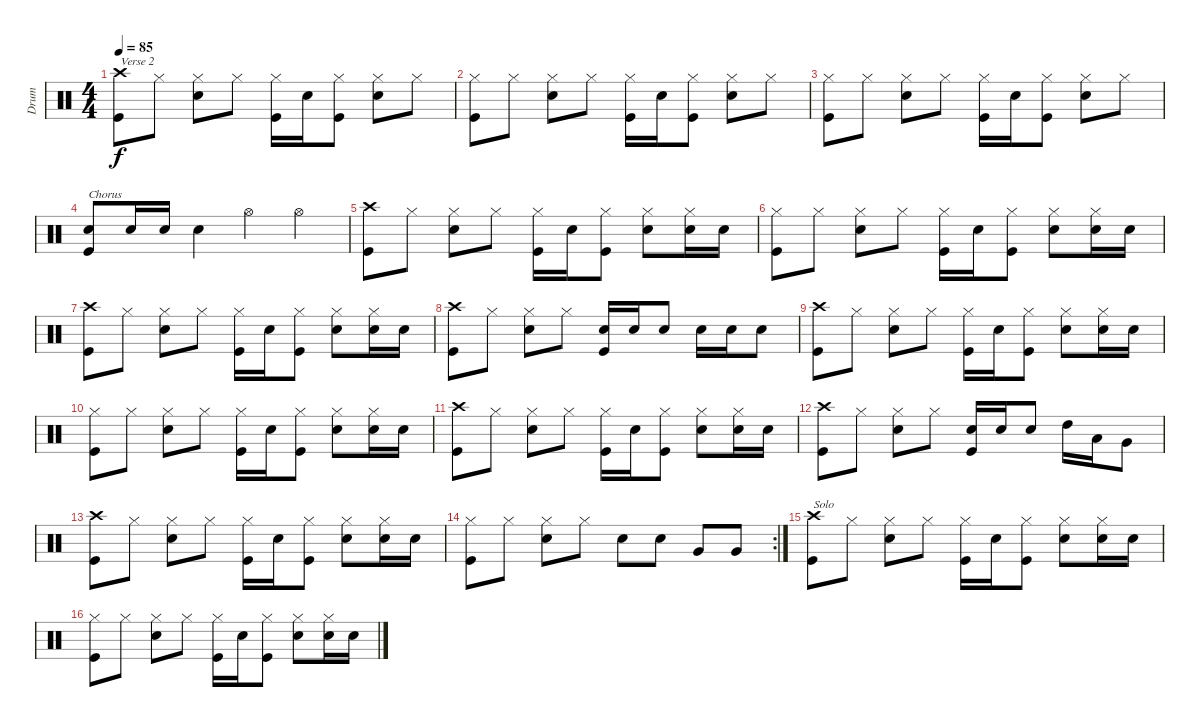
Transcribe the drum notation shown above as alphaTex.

\track ("Drum" "Drum") {instrument percussion}
\staff {score}
\articulation defaults
\ts (4 4)
\tempo 85
\clef neutral
\ks c
("Crash high (hit)" "Kick (hit)").8{txt "Verse 2" dy f} "Hi-Hat (closed)".8 ("Hi-Hat (closed)" "Snare (hit) 2").8 "Hi-Hat (closed)".8 ("Hi-Hat (closed)" "Kick (hit)").16 "Snare (hit) 2".16 ("Hi-Hat (closed)" "Kick (hit)").8 ("Hi-Hat (closed)" "Snare (hit) 2").8 "Hi-Hat (closed)".8 |
("Hi-Hat (closed)" "Kick (hit)").8 "Hi-Hat (closed)".8 ("Hi-Hat (closed)" "Snare (hit) 2").8 "Hi-Hat (closed)".8 ("Hi-Hat (closed)" "Kick (hit)").16 "Snare (hit) 2".16 ("Hi-Hat (closed)" "Kick (hit)").8 ("Hi-Hat (closed)" "Snare (hit) 2").8 "Hi-Hat (closed)".8 |
("Hi-Hat (closed)" "Kick (hit)").8 "Hi-Hat (closed)".8 ("Hi-Hat (closed)" "Snare (hit) 2").8 "Hi-Hat (closed)".8 ("Hi-Hat (closed)" "Kick (hit)").16 "Snare (hit) 2".16 ("Hi-Hat (closed)" "Kick (hit)").8 ("Hi-Hat (closed)" "Snare (hit) 2").8 "Hi-Hat (closed)".8 |
("Snare (hit) 2" "Kick (hit)").8{txt "Chorus"} "Snare (hit) 2".16 "Snare (hit) 2".16 "Snare (hit) 2".4 "Hi-Hat (open)".4 "Hi-Hat (open)".4 |
("Crash high (hit)" "Kick (hit)").8 "Hi-Hat (closed)".8 ("Hi-Hat (closed)" "Snare (hit) 2").8 "Hi-Hat (closed)".8 ("Hi-Hat (closed)" "Kick (hit)").16 "Snare (hit) 2".16 ("Hi-Hat (closed)" "Kick (hit)").8 ("Hi-Hat (closed)" "Snare (hit) 2").8 ("Hi-Hat (closed)" "Snare (hit) 2").16 "Snare (hit) 2".16 |
("Hi-Hat (closed)" "Kick (hit)").8 "Hi-Hat (closed)".8 ("Hi-Hat (closed)" "Snare (hit) 2").8 "Hi-Hat (closed)".8 ("Hi-Hat (closed)" "Kick (hit)").16 "Snare (hit) 2".16 ("Hi-Hat (closed)" "Kick (hit)").8 ("Hi-Hat (closed)" "Snare (hit) 2").8 ("Hi-Hat (closed)" "Snare (hit) 2").16 "Snare (hit) 2".16 |
("Crash high (hit)" "Kick (hit)").8 "Hi-Hat (closed)".8 ("Hi-Hat (closed)" "Snare (hit) 2").8 "Hi-Hat (closed)".8 ("Hi-Hat (closed)" "Kick (hit)").16 "Snare (hit) 2".16 ("Hi-Hat (closed)" "Kick (hit)").8 ("Hi-Hat (closed)" "Snare (hit) 2").8 ("Hi-Hat (closed)" "Snare (hit) 2").16 "Snare (hit) 2".16 |
("Crash high (hit)" "Kick (hit)").8 "Hi-Hat (closed)".8 ("Hi-Hat (closed)" "Snare (hit) 2").8 "Hi-Hat (closed)".8 ("Snare (hit) 2" "Kick (hit)").16 "Snare (hit) 2".16 "Snare (hit) 2".8 "Snare (hit) 2".16 "Snare (hit) 2".16 "Snare (hit) 2".8 |
("Crash high (hit)" "Kick (hit)").8 "Hi-Hat (closed)".8 ("Hi-Hat (closed)" "Snare (hit) 2").8 "Hi-Hat (closed)".8 ("Hi-Hat (closed)" "Kick (hit)").16 "Snare (hit) 2".16 ("Hi-Hat (closed)" "Kick (hit)").8 ("Hi-Hat (closed)" "Snare (hit) 2").8 ("Hi-Hat (closed)" "Snare (hit) 2").16 "Snare (hit) 2".16 |
("Hi-Hat (closed)" "Kick (hit)").8 "Hi-Hat (closed)".8 ("Hi-Hat (closed)" "Snare (hit) 2").8 "Hi-Hat (closed)".8 ("Hi-Hat (closed)" "Kick (hit)").16 "Snare (hit) 2".16 ("Hi-Hat (closed)" "Kick (hit)").8 ("Hi-Hat (closed)" "Snare (hit) 2").8 ("Hi-Hat (closed)" "Snare (hit) 2").16 "Snare (hit) 2".16 |
("Crash high (hit)" "Kick (hit)").8 "Hi-Hat (closed)".8 ("Hi-Hat (closed)" "Snare (hit) 2").8 "Hi-Hat (closed)".8 ("Hi-Hat (closed)" "Kick (hit)").16 "Snare (hit) 2".16 ("Hi-Hat (closed)" "Kick (hit)").8 ("Hi-Hat (closed)" "Snare (hit) 2").8 ("Hi-Hat (closed)" "Snare (hit) 2").16 "Snare (hit) 2".16 |
("Crash high (hit)" "Kick (hit)").8 "Hi-Hat (closed)".8 ("Hi-Hat (closed)" "Snare (hit) 2").8 "Hi-Hat (closed)".8 ("Snare (hit) 2" "Kick (hit)").16 "Snare (hit) 2".16 "Snare (hit) 2".8 "High Tom (hit)".16 "Low Tom (hit)".16 "Very Low Tom (hit)".8 |
("Crash high (hit)" "Kick (hit)").8 "Hi-Hat (closed)".8 ("Hi-Hat (closed)" "Snare (hit) 2").8 "Hi-Hat (closed)".8 ("Hi-Hat (closed)" "Kick (hit)").16 "Snare (hit) 2".16 ("Hi-Hat (closed)" "Kick (hit)").8 ("Hi-Hat (closed)" "Snare (hit) 2").8 ("Hi-Hat (closed)" "Snare (hit) 2").16 "Snare (hit) 2".16 |
\rc 2
("Hi-Hat (closed)" "Kick (hit)").8 "Hi-Hat (closed)".8 ("Hi-Hat (closed)" "Snare (hit) 2").8 "Hi-Hat (closed)".8 "Snare (hit) 2".8 "Snare (hit) 2".8 "Very Low Tom (hit)".8 "Very Low Tom (hit)".8 |
("Crash high (hit)" "Kick (hit)").8{txt "Solo"} "Hi-Hat (closed)".8 ("Hi-Hat (closed)" "Snare (hit) 2").8 "Hi-Hat (closed)".8 ("Hi-Hat (closed)" "Kick (hit)").16 "Snare (hit) 2".16 ("Hi-Hat (closed)" "Kick (hit)").8 ("Hi-Hat (closed)" "Snare (hit) 2").8 ("Hi-Hat (closed)" "Snare (hit) 2").16 "Snare (hit) 2".16 |
("Hi-Hat (closed)" "Kick (hit)").8 "Hi-Hat (closed)".8 ("Hi-Hat (closed)" "Snare (hit) 2").8 "Hi-Hat (closed)".8 ("Hi-Hat (closed)" "Kick (hit)").16 "Snare (hit) 2".16 ("Hi-Hat (closed)" "Kick (hit)").8 ("Hi-Hat (closed)" "Snare (hit) 2").8 ("Hi-Hat (closed)" "Snare (hit) 2").16 "Snare (hit) 2".16
